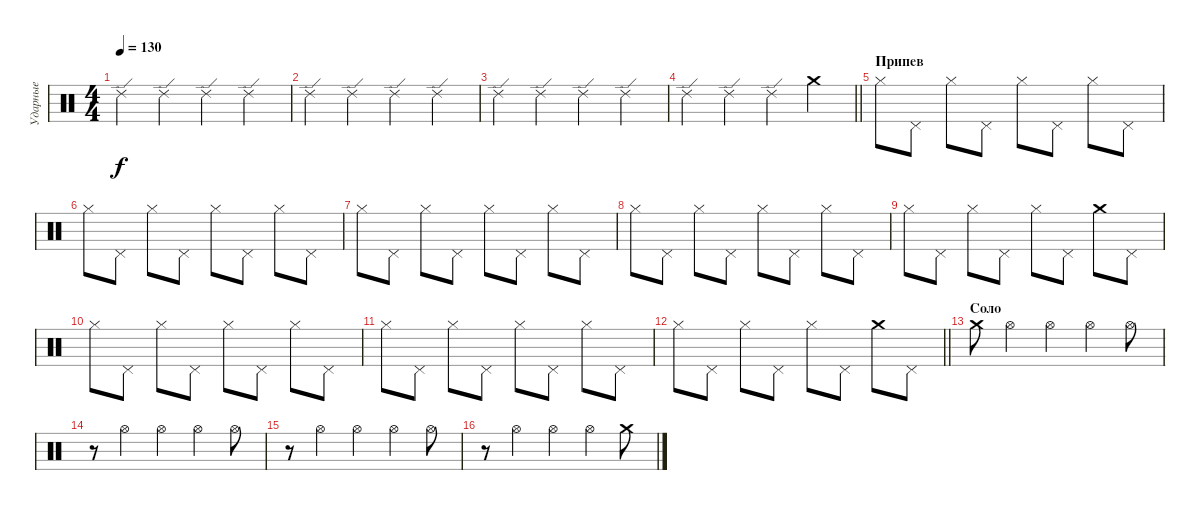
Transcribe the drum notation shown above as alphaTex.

\track ("Ударные" "Ударные") {instrument percussion}
\staff {score}
\articulation defaults
\ts (4 4)
\tempo 130
\clef neutral
\ks c "Ride (edge) 2".4{dy f} "Ride (edge) 2".4 "Ride (edge) 2".4 "Ride (edge) 2".4
|
"Ride (edge) 2".4 "Ride (edge) 2".4 "Ride (edge) 2".4 "Ride (edge) 2".4 |
"Ride (edge) 2".4 "Ride (edge) 2".4 "Ride (edge) 2".4 "Ride (edge) 2".4 |
\barLineRight lightlight "Ride (edge) 2".4 "Ride (edge) 2".4 "Ride (edge) 2".4 "Crash medium (hit)".4
|
\section ("" "Припев")
"Hi-Hat (closed)".8 "Pedal Hi-Hat (hit)".8 "Hi-Hat (closed)".8 "Pedal Hi-Hat (hit)".8 "Hi-Hat (closed)".8 "Pedal Hi-Hat (hit)".8 "Hi-Hat (closed)".8 "Pedal Hi-Hat (hit)".8 |
"Hi-Hat (closed)".8 "Pedal Hi-Hat (hit)".8 "Hi-Hat (closed)".8 "Pedal Hi-Hat (hit)".8 "Hi-Hat (closed)".8 "Pedal Hi-Hat (hit)".8 "Hi-Hat (closed)".8 "Pedal Hi-Hat (hit)".8 |
"Hi-Hat (closed)".8 "Pedal Hi-Hat (hit)".8 "Hi-Hat (closed)".8 "Pedal Hi-Hat (hit)".8 "Hi-Hat (closed)".8 "Pedal Hi-Hat (hit)".8 "Hi-Hat (closed)".8 "Pedal Hi-Hat (hit)".8 |
"Hi-Hat (closed)".8 "Pedal Hi-Hat (hit)".8 "Hi-Hat (closed)".8 "Pedal Hi-Hat (hit)".8 "Hi-Hat (closed)".8 "Pedal Hi-Hat (hit)".8 "Hi-Hat (closed)".8 "Pedal Hi-Hat (hit)".8 |
"Hi-Hat (closed)".8 "Pedal Hi-Hat (hit)".8 "Hi-Hat (closed)".8 "Pedal Hi-Hat (hit)".8 "Hi-Hat (closed)".8 "Pedal Hi-Hat (hit)".8 "Crash medium (hit)".8 "Pedal Hi-Hat (hit)".8 |
"Hi-Hat (closed)".8 "Pedal Hi-Hat (hit)".8 "Hi-Hat (closed)".8 "Pedal Hi-Hat (hit)".8 "Hi-Hat (closed)".8 "Pedal Hi-Hat (hit)".8 "Hi-Hat (closed)".8 "Pedal Hi-Hat (hit)".8 |
"Hi-Hat (closed)".8 "Pedal Hi-Hat (hit)".8 "Hi-Hat (closed)".8 "Pedal Hi-Hat (hit)".8 "Hi-Hat (closed)".8 "Pedal Hi-Hat (hit)".8 "Hi-Hat (closed)".8 "Pedal Hi-Hat (hit)".8 |
\barLineRight lightlight "Hi-Hat (closed)".8 "Pedal Hi-Hat (hit)".8 "Hi-Hat (closed)".8 "Pedal Hi-Hat (hit)".8 "Hi-Hat (closed)".8 "Pedal Hi-Hat (hit)".8 "Crash medium (hit)".8 "Pedal Hi-Hat (hit)".8
|
\section ("" "Соло")
"Crash medium (hit)".8 "Hi-Hat (open)".4 "Hi-Hat (open)".4 "Hi-Hat (open)".4 "Hi-Hat (open)".8 |
r.8 "Hi-Hat (open)".4 "Hi-Hat (open)".4 "Hi-Hat (open)".4 "Hi-Hat (open)".8 |
r.8 "Hi-Hat (open)".4 "Hi-Hat (open)".4 "Hi-Hat (open)".4 "Hi-Hat (open)".8 |
r.8 "Hi-Hat (open)".4 "Hi-Hat (open)".4 "Hi-Hat (open)".4 "Crash medium (hit)".8
